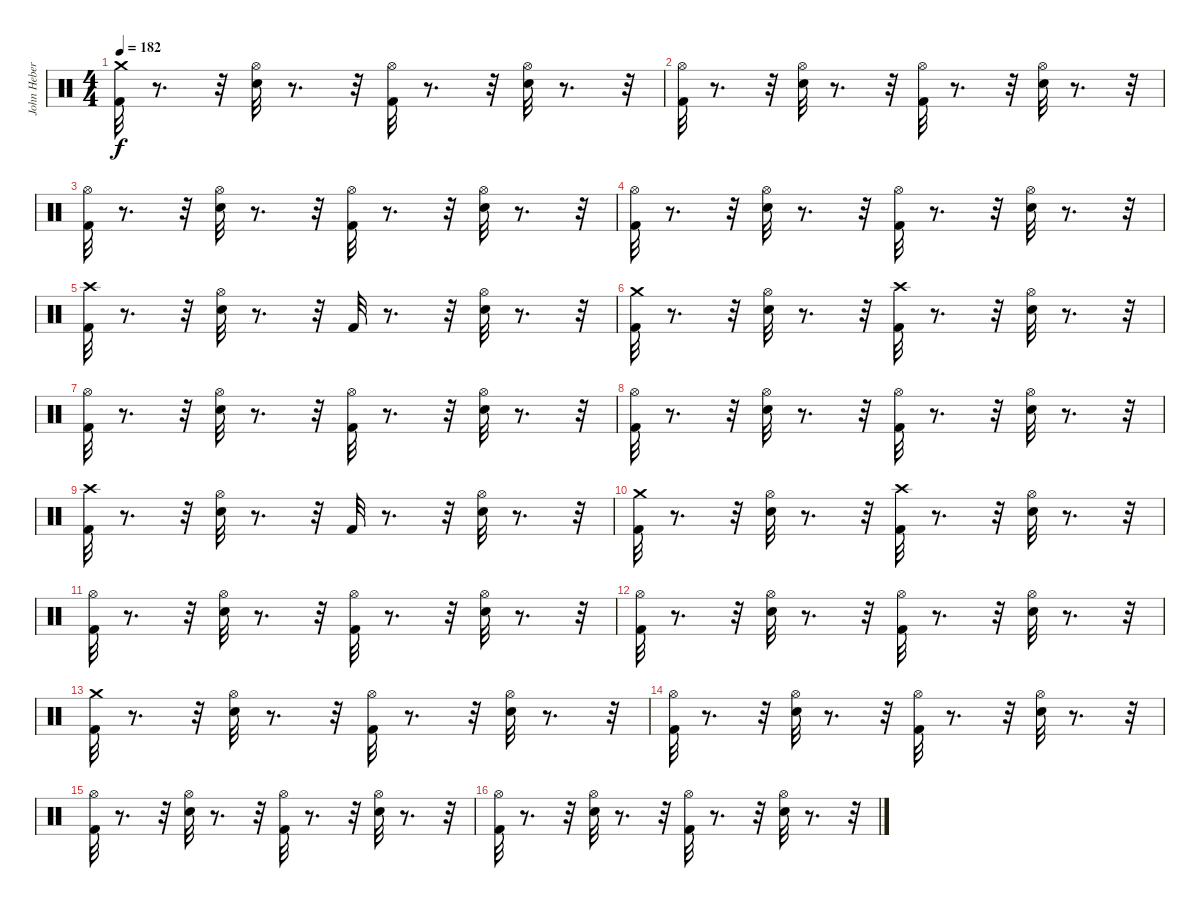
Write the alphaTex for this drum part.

\track ("John Hebert" "John Heber") {instrument percussion}
\staff {score}
\articulation defaults
\ts (4 4)
\tempo 182
\clef neutral
\ks c
("Crash medium (hit)" "Kick (hit) 2").32{dy f} r.8{d} r.32 ("Hi-Hat (open)" "Snare (hit) 2").32 r.8{d} r.32 ("Hi-Hat (open)" "Kick (hit) 2").32 r.8{d} r.32 ("Hi-Hat (open)" "Snare (hit) 2").32 r.8{d} r.32 |
("Hi-Hat (open)" "Kick (hit) 2").32 r.8{d} r.32 ("Hi-Hat (open)" "Snare (hit) 2").32 r.8{d} r.32 ("Hi-Hat (open)" "Kick (hit) 2").32 r.8{d} r.32 ("Hi-Hat (open)" "Snare (hit) 2").32 r.8{d} r.32 |
("Hi-Hat (open)" "Kick (hit) 2").32 r.8{d} r.32 ("Hi-Hat (open)" "Snare (hit) 2").32 r.8{d} r.32 ("Hi-Hat (open)" "Kick (hit) 2").32 r.8{d} r.32 ("Hi-Hat (open)" "Snare (hit) 2").32 r.8{d} r.32 |
("Hi-Hat (open)" "Kick (hit) 2").32 r.8{d} r.32 ("Hi-Hat (open)" "Snare (hit) 2").32 r.8{d} r.32 ("Hi-Hat (open)" "Kick (hit) 2").32 r.8{d} r.32 ("Hi-Hat (open)" "Snare (hit) 2").32 r.8{d} r.32 |
("Kick (hit) 2" "Crash high (hit)").32 r.8{d} r.32 ("Snare (hit) 2" "Hi-Hat (open)").32 r.8{d} r.32 "Kick (hit) 2".32 r.8{d} r.32 ("Snare (hit) 2" "Hi-Hat (open)").32 r.8{d} r.32 |
("Kick (hit) 2" "Crash medium (hit)").32 r.8{d} r.32 ("Hi-Hat (open)" "Snare (hit) 2").32 r.8{d} r.32 ("Kick (hit) 2" "Crash high (hit)").32 r.8{d} r.32 ("Snare (hit) 2" "Hi-Hat (open)").32 r.8{d} r.32 |
("Hi-Hat (open)" "Kick (hit) 2").32 r.8{d} r.32 ("Hi-Hat (open)" "Snare (hit) 2").32 r.8{d} r.32 ("Hi-Hat (open)" "Kick (hit) 2").32 r.8{d} r.32 ("Hi-Hat (open)" "Snare (hit) 2").32 r.8{d} r.32 |
("Hi-Hat (open)" "Kick (hit) 2").32 r.8{d} r.32 ("Hi-Hat (open)" "Snare (hit) 2").32 r.8{d} r.32 ("Hi-Hat (open)" "Kick (hit) 2").32 r.8{d} r.32 ("Hi-Hat (open)" "Snare (hit) 2").32 r.8{d} r.32 |
("Kick (hit) 2" "Crash high (hit)").32 r.8{d} r.32 ("Snare (hit) 2" "Hi-Hat (open)").32 r.8{d} r.32 "Kick (hit) 2".32 r.8{d} r.32 ("Snare (hit) 2" "Hi-Hat (open)").32 r.8{d} r.32 |
("Kick (hit) 2" "Crash medium (hit)").32 r.8{d} r.32 ("Hi-Hat (open)" "Snare (hit) 2").32 r.8{d} r.32 ("Kick (hit) 2" "Crash high (hit)").32 r.8{d} r.32 ("Snare (hit) 2" "Hi-Hat (open)").32 r.8{d} r.32 |
("Hi-Hat (open)" "Kick (hit) 2").32 r.8{d} r.32 ("Snare (hit) 2" "Hi-Hat (open)").32 r.8{d} r.32 ("Kick (hit) 2" "Hi-Hat (open)").32 r.8{d} r.32 ("Snare (hit) 2" "Hi-Hat (open)").32 r.8{d} r.32 |
("Hi-Hat (open)" "Kick (hit) 2").32 r.8{d} r.32 ("Snare (hit) 2" "Hi-Hat (open)").32 r.8{d} r.32 ("Kick (hit) 2" "Hi-Hat (open)").32 r.8{d} r.32 ("Snare (hit) 2" "Hi-Hat (open)").32 r.8{d} r.32 |
("Kick (hit) 2" "Crash medium (hit)").32 r.8{d} r.32 ("Hi-Hat (open)" "Snare (hit) 2").32 r.8{d} r.32 ("Hi-Hat (open)" "Kick (hit) 2").32 r.8{d} r.32 ("Hi-Hat (open)" "Snare (hit) 2").32 r.8{d} r.32 |
("Hi-Hat (open)" "Kick (hit) 2").32 r.8{d} r.32 ("Snare (hit) 2" "Hi-Hat (open)").32 r.8{d} r.32 ("Kick (hit) 2" "Hi-Hat (open)").32 r.8{d} r.32 ("Snare (hit) 2" "Hi-Hat (open)").32 r.8{d} r.32 |
("Hi-Hat (open)" "Kick (hit) 2").32 r.8{d} r.32 ("Snare (hit) 2" "Hi-Hat (open)").32 r.8{d} r.32 ("Kick (hit) 2" "Hi-Hat (open)").32 r.8{d} r.32 ("Snare (hit) 2" "Hi-Hat (open)").32 r.8{d} r.32 |
("Hi-Hat (open)" "Kick (hit) 2").32 r.8{d} r.32 ("Snare (hit) 2" "Hi-Hat (open)").32 r.8{d} r.32 ("Kick (hit) 2" "Hi-Hat (open)").32 r.8{d} r.32 ("Snare (hit) 2" "Hi-Hat (open)").32 r.8{d} r.32
